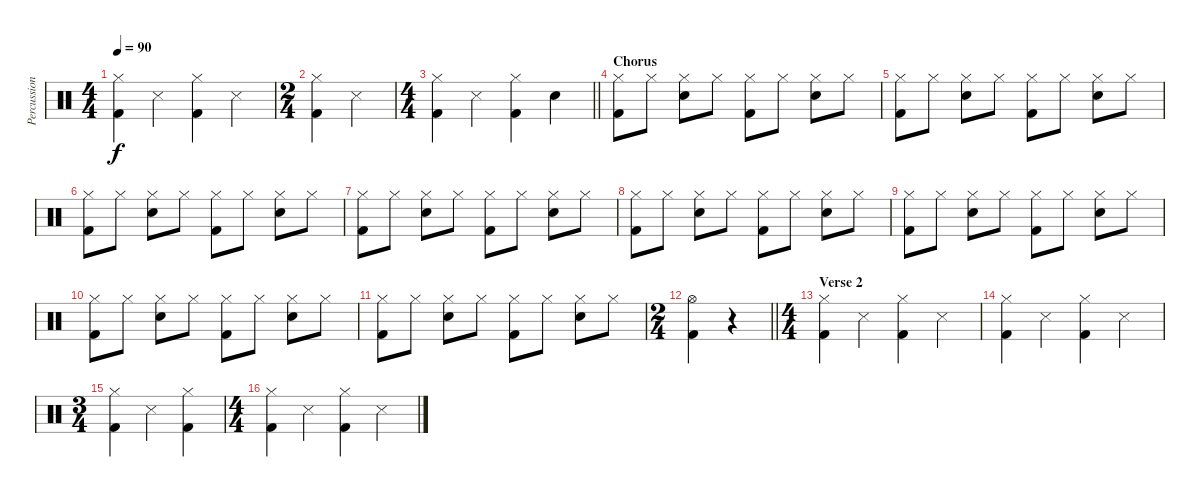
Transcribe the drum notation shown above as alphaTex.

\track ("Percussion" "Percussion") {instrument percussion}
\staff {score}
\articulation defaults
\ts (4 4)
\tempo 90
\clef neutral
\ks c
("Hi-Hat (closed)" "Kick (hit) 2").4{dy f} "Snare (side stick) 3".4 ("Hi-Hat (closed)" "Kick (hit) 2").4 "Snare (side stick) 3".4 |
\ts (2 4)
("Hi-Hat (closed)" "Kick (hit) 2").4 "Snare (side stick) 3".4 |
\ts (4 4)
\barLineRight lightlight
("Hi-Hat (closed)" "Kick (hit) 2").4 "Snare (side stick) 3".4 ("Hi-Hat (closed)" "Kick (hit) 2").4 "Snare (hit) 2".4 |
\section ("" "Chorus")
("Hi-Hat (closed)" "Kick (hit) 2").8 "Hi-Hat (closed)".8 ("Hi-Hat (closed)" "Snare (hit) 2").8 "Hi-Hat (closed)".8 ("Hi-Hat (closed)" "Kick (hit) 2").8 "Hi-Hat (closed)".8 ("Hi-Hat (closed)" "Snare (hit) 2").8 "Hi-Hat (closed)".8 |
("Hi-Hat (closed)" "Kick (hit) 2").8 "Hi-Hat (closed)".8 ("Hi-Hat (closed)" "Snare (hit) 2").8 "Hi-Hat (closed)".8 ("Hi-Hat (closed)" "Kick (hit) 2").8 "Hi-Hat (closed)".8 ("Hi-Hat (closed)" "Snare (hit) 2").8 "Hi-Hat (closed)".8 |
("Hi-Hat (closed)" "Kick (hit) 2").8 "Hi-Hat (closed)".8 ("Hi-Hat (closed)" "Snare (hit) 2").8 "Hi-Hat (closed)".8 ("Hi-Hat (closed)" "Kick (hit) 2").8 "Hi-Hat (closed)".8 ("Hi-Hat (closed)" "Snare (hit) 2").8 "Hi-Hat (closed)".8 |
("Hi-Hat (closed)" "Kick (hit) 2").8 "Hi-Hat (closed)".8 ("Hi-Hat (closed)" "Snare (hit) 2").8 "Hi-Hat (closed)".8 ("Hi-Hat (closed)" "Kick (hit) 2").8 "Hi-Hat (closed)".8 ("Hi-Hat (closed)" "Snare (hit) 2").8 "Hi-Hat (closed)".8 |
("Hi-Hat (closed)" "Kick (hit) 2").8 "Hi-Hat (closed)".8 ("Hi-Hat (closed)" "Snare (hit) 2").8 "Hi-Hat (closed)".8 ("Hi-Hat (closed)" "Kick (hit) 2").8 "Hi-Hat (closed)".8 ("Hi-Hat (closed)" "Snare (hit) 2").8 "Hi-Hat (closed)".8 |
("Hi-Hat (closed)" "Kick (hit) 2").8 "Hi-Hat (closed)".8 ("Hi-Hat (closed)" "Snare (hit) 2").8 "Hi-Hat (closed)".8 ("Hi-Hat (closed)" "Kick (hit) 2").8 "Hi-Hat (closed)".8 ("Hi-Hat (closed)" "Snare (hit) 2").8 "Hi-Hat (closed)".8 |
("Hi-Hat (closed)" "Kick (hit) 2").8 "Hi-Hat (closed)".8 ("Hi-Hat (closed)" "Snare (hit) 2").8 "Hi-Hat (closed)".8 ("Hi-Hat (closed)" "Kick (hit) 2").8 "Hi-Hat (closed)".8 ("Hi-Hat (closed)" "Snare (hit) 2").8 "Hi-Hat (closed)".8 |
("Hi-Hat (closed)" "Kick (hit) 2").8 "Hi-Hat (closed)".8 ("Hi-Hat (closed)" "Snare (hit) 2").8 "Hi-Hat (closed)".8 ("Hi-Hat (closed)" "Kick (hit) 2").8 "Hi-Hat (closed)".8 ("Hi-Hat (closed)" "Snare (hit) 2").8 "Hi-Hat (closed)".8 |
\ts (2 4)
\barLineRight lightlight
("Hi-Hat (open)" "Kick (hit) 2").4 r.4 |
\ts (4 4)
\section ("" "Verse 2")
("Hi-Hat (closed)" "Kick (hit) 2").4 "Snare (side stick) 3".4 ("Hi-Hat (closed)" "Kick (hit) 2").4 "Snare (side stick) 3".4 |
("Hi-Hat (closed)" "Kick (hit) 2").4 "Snare (side stick) 3".4 ("Hi-Hat (closed)" "Kick (hit) 2").4 "Snare (side stick) 3".4 |
\ts (3 4)
("Hi-Hat (closed)" "Kick (hit) 2").4 "Snare (side stick) 3".4 ("Hi-Hat (closed)" "Kick (hit) 2").4 |
\ts (4 4)
("Hi-Hat (closed)" "Kick (hit) 2").4 "Snare (side stick) 3".4 ("Hi-Hat (closed)" "Kick (hit) 2").4 "Snare (side stick) 3".4
